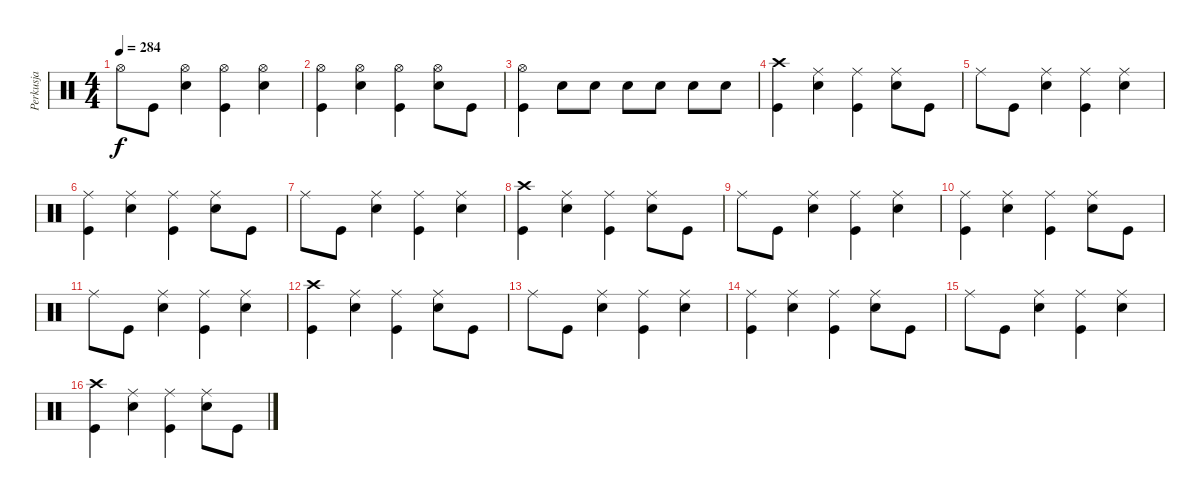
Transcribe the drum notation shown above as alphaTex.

\track ("Perkusja" "Perkusja") {instrument percussion}
\staff {score}
\articulation defaults
\ts (4 4)
\tempo 284
\clef neutral
\ks c "Hi-Hat (open)".8{dy f} "Kick (hit)".8
("Hi-Hat (open)" "Snare (hit) 2").4 ("Hi-Hat (open)" "Kick (hit)").4 ("Hi-Hat (open)" "Snare (hit) 2").4 |
("Hi-Hat (open)" "Kick (hit)").4 ("Hi-Hat (open)" "Snare (hit) 2").4 ("Hi-Hat (open)" "Kick (hit)").4 ("Hi-Hat (open)" "Snare (hit) 2").8 "Kick (hit)".8 |
("Kick (hit)" "Hi-Hat (open)").4 "Snare (hit) 2".8 "Snare (hit) 2".8 "Snare (hit) 2".8 "Snare (hit) 2".8 "Snare (hit) 2".8 "Snare (hit) 2".8 |
("Kick (hit)" "Crash high (hit)").4 ("Ride (middle)" "Snare (hit) 2").4 ("Ride (middle)" "Kick (hit)").4 ("Ride (middle)" "Snare (hit) 2").8 "Kick (hit)".8 |
"Ride (middle)".8 "Kick (hit)".8 ("Ride (middle)" "Snare (hit) 2").4 ("Ride (middle)" "Kick (hit)").4 ("Ride (middle)" "Snare (hit) 2").4 |
("Ride (middle)" "Kick (hit)").4 ("Ride (middle)" "Snare (hit) 2").4 ("Ride (middle)" "Kick (hit)").4 ("Ride (middle)" "Snare (hit) 2").8 "Kick (hit)".8 |
"Ride (middle)".8 "Kick (hit)".8 ("Ride (middle)" "Snare (hit) 2").4 ("Ride (middle)" "Kick (hit)").4 ("Ride (middle)" "Snare (hit) 2").4 |
("Kick (hit)" "Crash high (hit)").4 ("Ride (middle)" "Snare (hit) 2").4 ("Ride (middle)" "Kick (hit)").4 ("Ride (middle)" "Snare (hit) 2").8 "Kick (hit)".8 |
"Ride (middle)".8 "Kick (hit)".8 ("Ride (middle)" "Snare (hit) 2").4 ("Ride (middle)" "Kick (hit)").4 ("Ride (middle)" "Snare (hit) 2").4 |
("Ride (middle)" "Kick (hit)").4 ("Ride (middle)" "Snare (hit) 2").4 ("Ride (middle)" "Kick (hit)").4 ("Ride (middle)" "Snare (hit) 2").8 "Kick (hit)".8 |
"Ride (middle)".8 "Kick (hit)".8 ("Ride (middle)" "Snare (hit) 2").4 ("Ride (middle)" "Kick (hit)").4 ("Ride (middle)" "Snare (hit) 2").4 |
("Kick (hit)" "Crash high (hit)").4 ("Ride (middle)" "Snare (hit) 2").4 ("Ride (middle)" "Kick (hit)").4 ("Ride (middle)" "Snare (hit) 2").8 "Kick (hit)".8 |
"Ride (middle)".8 "Kick (hit)".8 ("Ride (middle)" "Snare (hit) 2").4 ("Ride (middle)" "Kick (hit)").4 ("Ride (middle)" "Snare (hit) 2").4 |
("Ride (middle)" "Kick (hit)").4 ("Ride (middle)" "Snare (hit) 2").4 ("Ride (middle)" "Kick (hit)").4 ("Ride (middle)" "Snare (hit) 2").8 "Kick (hit)".8 |
"Ride (middle)".8 "Kick (hit)".8 ("Ride (middle)" "Snare (hit) 2").4 ("Ride (middle)" "Kick (hit)").4 ("Ride (middle)" "Snare (hit) 2").4 |
("Kick (hit)" "Crash high (hit)").4 ("Ride (middle)" "Snare (hit) 2").4 ("Ride (middle)" "Kick (hit)").4 ("Ride (middle)" "Snare (hit) 2").8 "Kick (hit)".8
